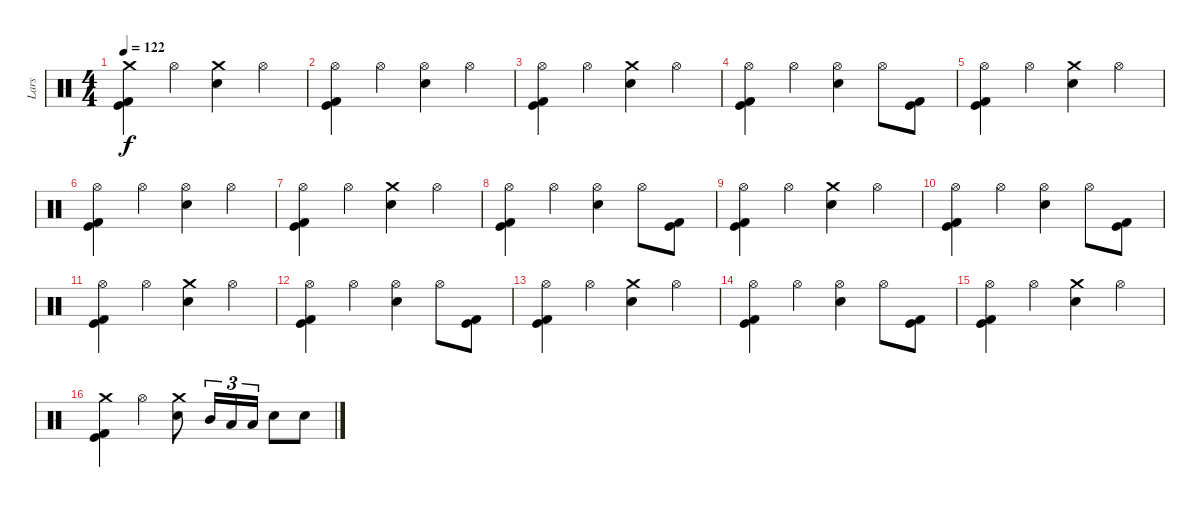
\track ("Lars" "Lars") {instrument percussion}
\staff {score}
\articulation defaults
\ts (4 4)
\tempo 122
\clef neutral
\ks c
("Crash medium (hit)" "Kick (hit)" "Kick (hit) 2").4{dy f} "Hi-Hat (open)".4 ("Crash medium (hit)" "Electric Snare (hit)").4 "Hi-Hat (open)".4 |
("Hi-Hat (open)" "Kick (hit)" "Kick (hit) 2").4 "Hi-Hat (open)".4 ("Hi-Hat (open)" "Electric Snare (hit)").4 "Hi-Hat (open)".4 |
("Hi-Hat (open)" "Kick (hit)" "Kick (hit) 2").4 "Hi-Hat (open)".4 ("Crash medium (hit)" "Electric Snare (hit)").4 "Hi-Hat (open)".4 |
("Hi-Hat (open)" "Kick (hit)" "Kick (hit) 2").4 "Hi-Hat (open)".4 ("Hi-Hat (open)" "Electric Snare (hit)").4 "Hi-Hat (open)".8 ("Kick (hit)" "Kick (hit) 2").8 |
("Hi-Hat (open)" "Kick (hit)" "Kick (hit) 2").4 "Hi-Hat (open)".4 ("Crash medium (hit)" "Electric Snare (hit)").4 "Hi-Hat (open)".4 |
("Hi-Hat (open)" "Kick (hit)" "Kick (hit) 2").4 "Hi-Hat (open)".4 ("Hi-Hat (open)" "Electric Snare (hit)").4 "Hi-Hat (open)".4 |
("Hi-Hat (open)" "Kick (hit)" "Kick (hit) 2").4 "Hi-Hat (open)".4 ("Crash medium (hit)" "Electric Snare (hit)").4 "Hi-Hat (open)".4 |
("Hi-Hat (open)" "Kick (hit)" "Kick (hit) 2").4 "Hi-Hat (open)".4 ("Hi-Hat (open)" "Electric Snare (hit)").4 "Hi-Hat (open)".8 ("Kick (hit)" "Kick (hit) 2").8 |
("Hi-Hat (open)" "Kick (hit)" "Kick (hit) 2").4 "Hi-Hat (open)".4 ("Crash medium (hit)" "Electric Snare (hit)").4 "Hi-Hat (open)".4 |
("Hi-Hat (open)" "Kick (hit)" "Kick (hit) 2").4 "Hi-Hat (open)".4 ("Hi-Hat (open)" "Electric Snare (hit)").4 "Hi-Hat (open)".8 ("Kick (hit)" "Kick (hit) 2").8 |
("Hi-Hat (open)" "Kick (hit)" "Kick (hit) 2").4 "Hi-Hat (open)".4 ("Crash medium (hit)" "Electric Snare (hit)").4 "Hi-Hat (open)".4 |
("Hi-Hat (open)" "Kick (hit)" "Kick (hit) 2").4 "Hi-Hat (open)".4 ("Hi-Hat (open)" "Electric Snare (hit)").4 "Hi-Hat (open)".8 ("Kick (hit)" "Kick (hit) 2").8 |
("Hi-Hat (open)" "Kick (hit)" "Kick (hit) 2").4 "Hi-Hat (open)".4 ("Crash medium (hit)" "Electric Snare (hit)").4 "Hi-Hat (open)".4 |
("Hi-Hat (open)" "Kick (hit)" "Kick (hit) 2").4 "Hi-Hat (open)".4 ("Hi-Hat (open)" "Electric Snare (hit)").4 "Hi-Hat (open)".8 ("Kick (hit)" "Kick (hit) 2").8 |
("Hi-Hat (open)" "Kick (hit)" "Kick (hit) 2").4 "Hi-Hat (open)".4 ("Crash medium (hit)" "Electric Snare (hit)").4 "Hi-Hat (open)".4 |
("Crash medium (hit)" "Kick (hit)" "Kick (hit) 2").4 "Hi-Hat (open)".4 ("Crash medium (hit)" "Electric Snare (hit)").8 "Mid Tom (hit)".16{tu (3 2)} "Low Tom (hit)".16{tu (3 2)} "Low Tom (hit)".16{tu (3 2)} "Electric Snare (hit)".8 "Electric Snare (hit)".8
